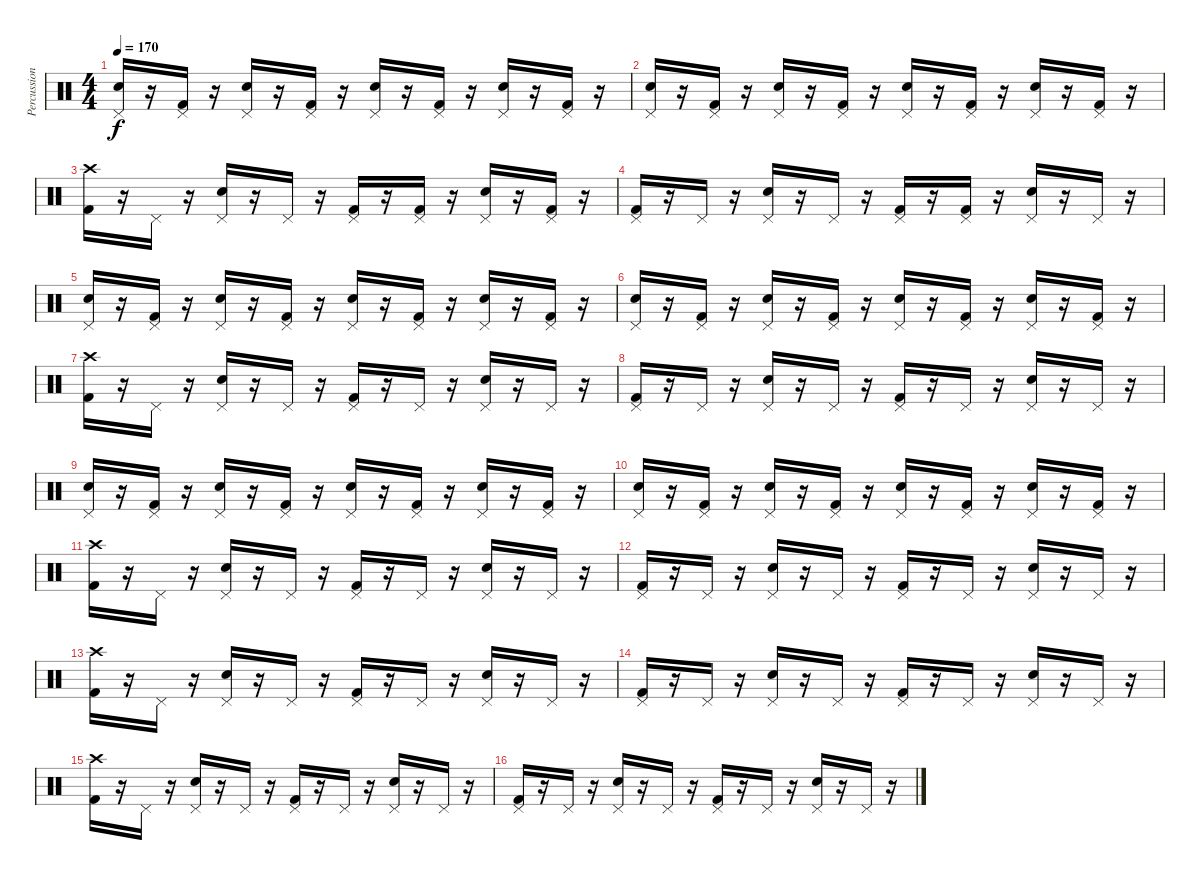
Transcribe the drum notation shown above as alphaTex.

\track ("Percussion" "Percussion") {instrument percussion}
\staff {score}
\articulation defaults
\ts (4 4)
\tempo 170
\clef neutral
\ks c
("Pedal Hi-Hat (hit)" "Snare (hit) 2").16{dy f} r.16 ("Pedal Hi-Hat (hit)" "Kick (hit) 2").16 r.16 ("Pedal Hi-Hat (hit)" "Snare (hit) 2").16 r.16 ("Pedal Hi-Hat (hit)" "Kick (hit) 2").16 r.16 ("Pedal Hi-Hat (hit)" "Snare (hit) 2").16 r.16 ("Pedal Hi-Hat (hit)" "Kick (hit) 2").16 r.16 ("Pedal Hi-Hat (hit)" "Snare (hit) 2").16 r.16 ("Pedal Hi-Hat (hit)" "Kick (hit) 2").16 r.16 |
("Pedal Hi-Hat (hit)" "Snare (hit) 2").16 r.16 ("Pedal Hi-Hat (hit)" "Kick (hit) 2").16 r.16 ("Pedal Hi-Hat (hit)" "Snare (hit) 2").16 r.16 ("Pedal Hi-Hat (hit)" "Kick (hit) 2").16 r.16 ("Pedal Hi-Hat (hit)" "Snare (hit) 2").16 r.16 ("Pedal Hi-Hat (hit)" "Kick (hit) 2").16 r.16 ("Pedal Hi-Hat (hit)" "Snare (hit) 2").16 r.16 ("Pedal Hi-Hat (hit)" "Kick (hit) 2").16 r.16 |
("Crash high (hit)" "Kick (hit) 2").16 r.16 "Pedal Hi-Hat (hit)".16 r.16 ("Pedal Hi-Hat (hit)" "Snare (hit) 2").16 r.16 "Pedal Hi-Hat (hit)".16 r.16 ("Pedal Hi-Hat (hit)" "Kick (hit) 2").16 r.16 ("Pedal Hi-Hat (hit)" "Kick (hit) 2").16 r.16 ("Pedal Hi-Hat (hit)" "Snare (hit) 2").16 r.16 ("Pedal Hi-Hat (hit)" "Kick (hit) 2").16 r.16 |
("Pedal Hi-Hat (hit)" "Kick (hit) 2").16 r.16 "Pedal Hi-Hat (hit)".16 r.16 ("Pedal Hi-Hat (hit)" "Snare (hit) 2").16 r.16 "Pedal Hi-Hat (hit)".16 r.16 ("Pedal Hi-Hat (hit)" "Kick (hit) 2").16 r.16 ("Pedal Hi-Hat (hit)" "Kick (hit) 2").16 r.16 ("Pedal Hi-Hat (hit)" "Snare (hit) 2").16 r.16 "Pedal Hi-Hat (hit)".16 r.16 |
("Pedal Hi-Hat (hit)" "Snare (hit) 2").16 r.16 ("Pedal Hi-Hat (hit)" "Kick (hit) 2").16 r.16 ("Pedal Hi-Hat (hit)" "Snare (hit) 2").16 r.16 ("Pedal Hi-Hat (hit)" "Kick (hit) 2").16 r.16 ("Pedal Hi-Hat (hit)" "Snare (hit) 2").16 r.16 ("Pedal Hi-Hat (hit)" "Kick (hit) 2").16 r.16 ("Pedal Hi-Hat (hit)" "Snare (hit) 2").16 r.16 ("Pedal Hi-Hat (hit)" "Kick (hit) 2").16 r.16 |
("Pedal Hi-Hat (hit)" "Snare (hit) 2").16 r.16 ("Pedal Hi-Hat (hit)" "Kick (hit) 2").16 r.16 ("Pedal Hi-Hat (hit)" "Snare (hit) 2").16 r.16 ("Pedal Hi-Hat (hit)" "Kick (hit) 2").16 r.16 ("Pedal Hi-Hat (hit)" "Snare (hit) 2").16 r.16 ("Pedal Hi-Hat (hit)" "Kick (hit) 2").16 r.16 ("Pedal Hi-Hat (hit)" "Snare (hit) 2").16 r.16 ("Pedal Hi-Hat (hit)" "Kick (hit) 2").16 r.16 |
("Crash high (hit)" "Kick (hit) 2").16 r.16 "Pedal Hi-Hat (hit)".16 r.16 ("Pedal Hi-Hat (hit)" "Snare (hit) 2").16 r.16 "Pedal Hi-Hat (hit)".16 r.16 ("Pedal Hi-Hat (hit)" "Kick (hit) 2").16 r.16 "Pedal Hi-Hat (hit)".16 r.16 ("Pedal Hi-Hat (hit)" "Snare (hit) 2").16 r.16 "Pedal Hi-Hat (hit)".16 r.16 |
("Pedal Hi-Hat (hit)" "Kick (hit) 2").16 r.16 "Pedal Hi-Hat (hit)".16 r.16 ("Pedal Hi-Hat (hit)" "Snare (hit) 2").16 r.16 "Pedal Hi-Hat (hit)".16 r.16 ("Pedal Hi-Hat (hit)" "Kick (hit) 2").16 r.16 "Pedal Hi-Hat (hit)".16 r.16 ("Pedal Hi-Hat (hit)" "Snare (hit) 2").16 r.16 "Pedal Hi-Hat (hit)".16 r.16 |
("Pedal Hi-Hat (hit)" "Snare (hit) 2").16 r.16 ("Pedal Hi-Hat (hit)" "Kick (hit) 2").16 r.16 ("Pedal Hi-Hat (hit)" "Snare (hit) 2").16 r.16 ("Pedal Hi-Hat (hit)" "Kick (hit) 2").16 r.16 ("Pedal Hi-Hat (hit)" "Snare (hit) 2").16 r.16 ("Pedal Hi-Hat (hit)" "Kick (hit) 2").16 r.16 ("Pedal Hi-Hat (hit)" "Snare (hit) 2").16 r.16 ("Pedal Hi-Hat (hit)" "Kick (hit) 2").16 r.16 |
("Pedal Hi-Hat (hit)" "Snare (hit) 2").16 r.16 ("Pedal Hi-Hat (hit)" "Kick (hit) 2").16 r.16 ("Pedal Hi-Hat (hit)" "Snare (hit) 2").16 r.16 ("Pedal Hi-Hat (hit)" "Kick (hit) 2").16 r.16 ("Pedal Hi-Hat (hit)" "Snare (hit) 2").16 r.16 ("Pedal Hi-Hat (hit)" "Kick (hit) 2").16 r.16 ("Pedal Hi-Hat (hit)" "Snare (hit) 2").16 r.16 ("Pedal Hi-Hat (hit)" "Kick (hit) 2").16 r.16 |
("Crash high (hit)" "Kick (hit) 2").16 r.16 "Pedal Hi-Hat (hit)".16 r.16 ("Pedal Hi-Hat (hit)" "Snare (hit) 2").16 r.16 "Pedal Hi-Hat (hit)".16 r.16 ("Pedal Hi-Hat (hit)" "Kick (hit) 2").16 r.16 "Pedal Hi-Hat (hit)".16 r.16 ("Pedal Hi-Hat (hit)" "Snare (hit) 2").16 r.16 "Pedal Hi-Hat (hit)".16 r.16 |
("Pedal Hi-Hat (hit)" "Kick (hit) 2").16 r.16 "Pedal Hi-Hat (hit)".16 r.16 ("Pedal Hi-Hat (hit)" "Snare (hit) 2").16 r.16 "Pedal Hi-Hat (hit)".16 r.16 ("Pedal Hi-Hat (hit)" "Kick (hit) 2").16 r.16 "Pedal Hi-Hat (hit)".16 r.16 ("Pedal Hi-Hat (hit)" "Snare (hit) 2").16 r.16 "Pedal Hi-Hat (hit)".16 r.16 |
("Crash high (hit)" "Kick (hit) 2").16 r.16 "Pedal Hi-Hat (hit)".16 r.16 ("Pedal Hi-Hat (hit)" "Snare (hit) 2").16 r.16 "Pedal Hi-Hat (hit)".16 r.16 ("Pedal Hi-Hat (hit)" "Kick (hit) 2").16 r.16 "Pedal Hi-Hat (hit)".16 r.16 ("Pedal Hi-Hat (hit)" "Snare (hit) 2").16 r.16 "Pedal Hi-Hat (hit)".16 r.16 |
("Pedal Hi-Hat (hit)" "Kick (hit) 2").16 r.16 "Pedal Hi-Hat (hit)".16 r.16 ("Pedal Hi-Hat (hit)" "Snare (hit) 2").16 r.16 "Pedal Hi-Hat (hit)".16 r.16 ("Pedal Hi-Hat (hit)" "Kick (hit) 2").16 r.16 "Pedal Hi-Hat (hit)".16 r.16 ("Pedal Hi-Hat (hit)" "Snare (hit) 2").16 r.16 "Pedal Hi-Hat (hit)".16 r.16 |
("Crash high (hit)" "Kick (hit) 2").16 r.16 "Pedal Hi-Hat (hit)".16 r.16 ("Pedal Hi-Hat (hit)" "Snare (hit) 2").16 r.16 "Pedal Hi-Hat (hit)".16 r.16 ("Pedal Hi-Hat (hit)" "Kick (hit) 2").16 r.16 "Pedal Hi-Hat (hit)".16 r.16 ("Pedal Hi-Hat (hit)" "Snare (hit) 2").16 r.16 "Pedal Hi-Hat (hit)".16 r.16 |
("Pedal Hi-Hat (hit)" "Kick (hit) 2").16 r.16 "Pedal Hi-Hat (hit)".16 r.16 ("Pedal Hi-Hat (hit)" "Snare (hit) 2").16 r.16 "Pedal Hi-Hat (hit)".16 r.16 ("Pedal Hi-Hat (hit)" "Kick (hit) 2").16 r.16 "Pedal Hi-Hat (hit)".16 r.16 ("Pedal Hi-Hat (hit)" "Snare (hit) 2").16 r.16 "Pedal Hi-Hat (hit)".16 r.16
